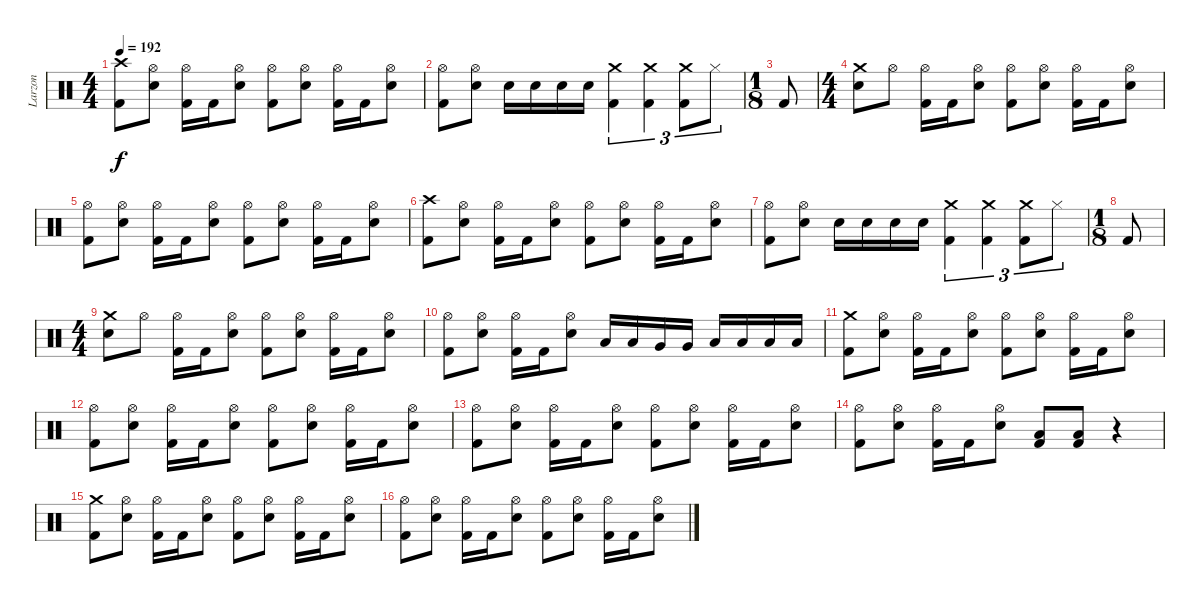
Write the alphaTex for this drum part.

\track ("Larzon" "Larzon") {instrument percussion}
\staff {score}
\articulation defaults
\ts (4 4)
\tempo 192
\clef neutral
\ks c
("Crash high (hit)" "Kick (hit) 2").8{dy f} ("Hi-Hat (open)" "Electric Snare (hit)").8 ("Hi-Hat (open)" "Kick (hit) 2").16 "Kick (hit) 2".16 ("Hi-Hat (open)" "Electric Snare (hit)").8 ("Hi-Hat (open)" "Kick (hit) 2").8 ("Hi-Hat (open)" "Electric Snare (hit)").8 ("Hi-Hat (open)" "Kick (hit) 2").16 "Kick (hit) 2".16 ("Hi-Hat (open)" "Electric Snare (hit)").8 |
("Hi-Hat (open)" "Kick (hit) 2").8 ("Hi-Hat (open)" "Electric Snare (hit)").8 "Electric Snare (hit)".16 "Electric Snare (hit)".16 "Electric Snare (hit)".16 "Electric Snare (hit)".16 ("Crash medium (hit)" "Kick (hit) 2").4{tu (3 2)} ("Crash medium (hit)" "Kick (hit) 2").4{tu (3 2)} ("Crash medium (hit)" "Kick (hit) 2").8{tu (3 2)} "Hi-Hat (closed)".8{tu (3 2)} |
\ts (1 8)
"Kick (hit) 2".8 |
\ts (4 4)
("Crash medium (hit)" "Electric Snare (hit)").8 "Hi-Hat (open)".8 ("Hi-Hat (open)" "Kick (hit) 2").16 "Kick (hit) 2".16 ("Hi-Hat (open)" "Electric Snare (hit)").8 ("Hi-Hat (open)" "Kick (hit) 2").8 ("Hi-Hat (open)" "Electric Snare (hit)").8 ("Hi-Hat (open)" "Kick (hit) 2").16 "Kick (hit) 2".16 ("Hi-Hat (open)" "Electric Snare (hit)").8 |
("Hi-Hat (open)" "Kick (hit) 2").8 ("Hi-Hat (open)" "Electric Snare (hit)").8 ("Hi-Hat (open)" "Kick (hit) 2").16 "Kick (hit) 2".16 ("Hi-Hat (open)" "Electric Snare (hit)").8 ("Hi-Hat (open)" "Kick (hit) 2").8 ("Hi-Hat (open)" "Electric Snare (hit)").8 ("Hi-Hat (open)" "Kick (hit) 2").16 "Kick (hit) 2".16 ("Hi-Hat (open)" "Electric Snare (hit)").8 |
("Crash high (hit)" "Kick (hit) 2").8 ("Hi-Hat (open)" "Electric Snare (hit)").8 ("Hi-Hat (open)" "Kick (hit) 2").16 "Kick (hit) 2".16 ("Hi-Hat (open)" "Electric Snare (hit)").8 ("Hi-Hat (open)" "Kick (hit) 2").8 ("Hi-Hat (open)" "Electric Snare (hit)").8 ("Hi-Hat (open)" "Kick (hit) 2").16 "Kick (hit) 2".16 ("Hi-Hat (open)" "Electric Snare (hit)").8 |
("Hi-Hat (open)" "Kick (hit) 2").8 ("Hi-Hat (open)" "Electric Snare (hit)").8 "Electric Snare (hit)".16 "Electric Snare (hit)".16 "Electric Snare (hit)".16 "Electric Snare (hit)".16 ("Crash medium (hit)" "Kick (hit) 2").4{tu (3 2)} ("Crash medium (hit)" "Kick (hit) 2").4{tu (3 2)} ("Crash medium (hit)" "Kick (hit) 2").8{tu (3 2)} "Hi-Hat (closed)".8{tu (3 2)} |
\ts (1 8)
"Kick (hit) 2".8 |
\ts (4 4)
("Crash medium (hit)" "Electric Snare (hit)").8 "Hi-Hat (open)".8 ("Hi-Hat (open)" "Kick (hit) 2").16 "Kick (hit) 2".16 ("Hi-Hat (open)" "Electric Snare (hit)").8 ("Hi-Hat (open)" "Kick (hit) 2").8 ("Hi-Hat (open)" "Electric Snare (hit)").8 ("Hi-Hat (open)" "Kick (hit) 2").16 "Kick (hit) 2".16 ("Hi-Hat (open)" "Electric Snare (hit)").8 |
("Hi-Hat (open)" "Kick (hit) 2").8 ("Hi-Hat (open)" "Electric Snare (hit)").8 ("Hi-Hat (open)" "Kick (hit) 2").16 "Kick (hit) 2".16 ("Hi-Hat (open)" "Electric Snare (hit)").8 "Low Tom (hit)".16 "Low Tom (hit)".16 "Very Low Tom (hit)".16 "Very Low Tom (hit)".16 "Low Floor Tom (hit)".16 "Low Floor Tom (hit)".16 "Low Floor Tom (hit)".16 "Low Floor Tom (hit)".16 |
("Crash medium (hit)" "Kick (hit) 2").8 ("Hi-Hat (open)" "Electric Snare (hit)").8 ("Hi-Hat (open)" "Kick (hit) 2").16 "Kick (hit) 2".16 ("Hi-Hat (open)" "Electric Snare (hit)").8 ("Hi-Hat (open)" "Kick (hit) 2").8 ("Hi-Hat (open)" "Electric Snare (hit)").8 ("Hi-Hat (open)" "Kick (hit) 2").16 "Kick (hit) 2".16 ("Hi-Hat (open)" "Electric Snare (hit)").8 |
("Hi-Hat (open)" "Kick (hit) 2").8 ("Hi-Hat (open)" "Electric Snare (hit)").8 ("Hi-Hat (open)" "Kick (hit) 2").16 "Kick (hit) 2".16 ("Hi-Hat (open)" "Electric Snare (hit)").8 ("Hi-Hat (open)" "Kick (hit) 2").8 ("Hi-Hat (open)" "Electric Snare (hit)").8 ("Hi-Hat (open)" "Kick (hit) 2").16 "Kick (hit) 2".16 ("Hi-Hat (open)" "Electric Snare (hit)").8 |
("Hi-Hat (open)" "Kick (hit) 2").8 ("Hi-Hat (open)" "Electric Snare (hit)").8 ("Hi-Hat (open)" "Kick (hit) 2").16 "Kick (hit) 2".16 ("Hi-Hat (open)" "Electric Snare (hit)").8 ("Hi-Hat (open)" "Kick (hit) 2").8 ("Hi-Hat (open)" "Electric Snare (hit)").8 ("Hi-Hat (open)" "Kick (hit) 2").16 "Kick (hit) 2".16 ("Hi-Hat (open)" "Electric Snare (hit)").8 |
("Hi-Hat (open)" "Kick (hit) 2").8 ("Hi-Hat (open)" "Electric Snare (hit)").8 ("Hi-Hat (open)" "Kick (hit) 2").16 "Kick (hit) 2".16 ("Hi-Hat (open)" "Electric Snare (hit)").8 ("Low Tom (hit)" "Kick (hit) 2").8 ("Low Tom (hit)" "Kick (hit) 2").8 r.4 |
("Crash medium (hit)" "Kick (hit) 2").8 ("Hi-Hat (open)" "Electric Snare (hit)").8 ("Hi-Hat (open)" "Kick (hit) 2").16 "Kick (hit) 2".16 ("Hi-Hat (open)" "Electric Snare (hit)").8 ("Hi-Hat (open)" "Kick (hit) 2").8 ("Hi-Hat (open)" "Electric Snare (hit)").8 ("Hi-Hat (open)" "Kick (hit) 2").16 "Kick (hit) 2".16 ("Hi-Hat (open)" "Electric Snare (hit)").8 |
("Hi-Hat (open)" "Kick (hit) 2").8 ("Hi-Hat (open)" "Electric Snare (hit)").8 ("Hi-Hat (open)" "Kick (hit) 2").16 "Kick (hit) 2".16 ("Hi-Hat (open)" "Electric Snare (hit)").8 ("Hi-Hat (open)" "Kick (hit) 2").8 ("Hi-Hat (open)" "Electric Snare (hit)").8 ("Hi-Hat (open)" "Kick (hit) 2").16 "Kick (hit) 2".16 ("Hi-Hat (open)" "Electric Snare (hit)").8
